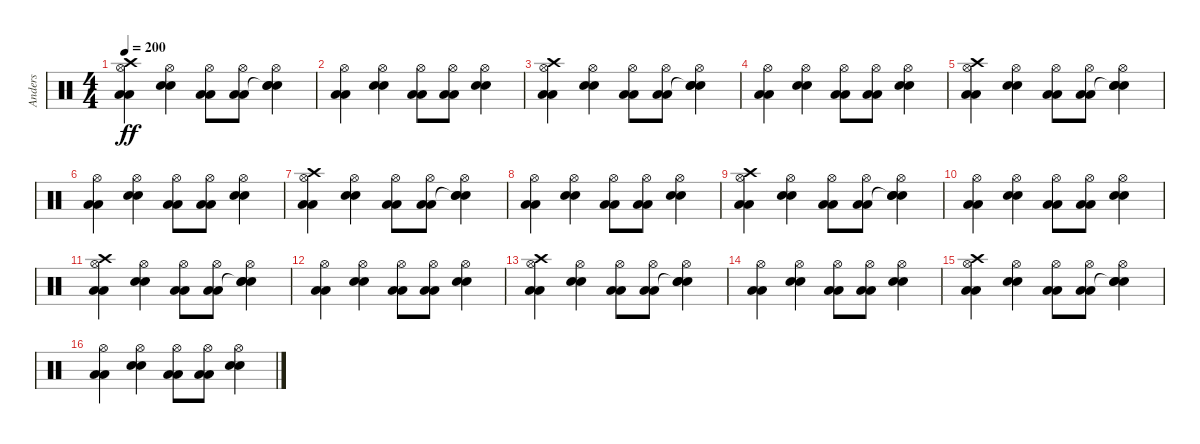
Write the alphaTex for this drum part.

\track ("Anders" "Anders") {instrument percussion}
\staff {score}
\articulation defaults
\ts (4 4)
\tempo 200
\clef neutral
\ks c
("Hi-Hat (open)" "Crash high (hit)" "Low Floor Tom (hit)" "Low Floor Tom (hit)").4{dy ff} ("Hi-Hat (open)" "Electric Snare (hit)" "Electric Snare (hit)").4 ("Hi-Hat (open)" "Low Floor Tom (hit)" "Low Floor Tom (hit)").8 ("Hi-Hat (open)" "Low Floor Tom (hit)" "Low Floor Tom (hit)").8 ("Hi-Hat (open)" "Snare (hit)"{t} "Electric Snare (hit)" "Electric Snare (hit)").4 |
("Hi-Hat (open)" "Low Floor Tom (hit)" "Low Floor Tom (hit)").4 ("Hi-Hat (open)" "Electric Snare (hit)" "Electric Snare (hit)").4 ("Hi-Hat (open)" "Low Floor Tom (hit)" "Low Floor Tom (hit)").8 ("Hi-Hat (open)" "Low Floor Tom (hit)" "Low Floor Tom (hit)").8 ("Hi-Hat (open)" "Electric Snare (hit)" "Electric Snare (hit)").4 |
("Hi-Hat (open)" "Crash high (hit)" "Low Floor Tom (hit)" "Low Floor Tom (hit)").4 ("Hi-Hat (open)" "Electric Snare (hit)" "Electric Snare (hit)").4 ("Hi-Hat (open)" "Low Floor Tom (hit)" "Low Floor Tom (hit)").8 ("Hi-Hat (open)" "Low Floor Tom (hit)" "Low Floor Tom (hit)").8 ("Hi-Hat (open)" "Snare (hit)"{t} "Electric Snare (hit)" "Electric Snare (hit)").4 |
("Hi-Hat (open)" "Low Floor Tom (hit)" "Low Floor Tom (hit)").4 ("Hi-Hat (open)" "Electric Snare (hit)" "Electric Snare (hit)").4 ("Hi-Hat (open)" "Low Floor Tom (hit)" "Low Floor Tom (hit)").8 ("Hi-Hat (open)" "Low Floor Tom (hit)" "Low Floor Tom (hit)").8 ("Hi-Hat (open)" "Electric Snare (hit)" "Electric Snare (hit)").4 |
("Hi-Hat (open)" "Crash high (hit)" "Low Floor Tom (hit)" "Low Floor Tom (hit)").4 ("Hi-Hat (open)" "Electric Snare (hit)" "Electric Snare (hit)").4 ("Hi-Hat (open)" "Low Floor Tom (hit)" "Low Floor Tom (hit)").8 ("Hi-Hat (open)" "Low Floor Tom (hit)" "Low Floor Tom (hit)").8 ("Hi-Hat (open)" "Snare (hit)"{t} "Electric Snare (hit)" "Electric Snare (hit)").4 |
("Hi-Hat (open)" "Low Floor Tom (hit)" "Low Floor Tom (hit)").4 ("Hi-Hat (open)" "Electric Snare (hit)" "Electric Snare (hit)").4 ("Hi-Hat (open)" "Low Floor Tom (hit)" "Low Floor Tom (hit)").8 ("Hi-Hat (open)" "Low Floor Tom (hit)" "Low Floor Tom (hit)").8 ("Hi-Hat (open)" "Electric Snare (hit)" "Electric Snare (hit)").4 |
("Hi-Hat (open)" "Crash high (hit)" "Low Floor Tom (hit)" "Low Floor Tom (hit)").4 ("Hi-Hat (open)" "Electric Snare (hit)" "Electric Snare (hit)").4 ("Hi-Hat (open)" "Low Floor Tom (hit)" "Low Floor Tom (hit)").8 ("Hi-Hat (open)" "Low Floor Tom (hit)" "Low Floor Tom (hit)").8 ("Hi-Hat (open)" "Snare (hit)"{t} "Electric Snare (hit)" "Electric Snare (hit)").4 |
("Hi-Hat (open)" "Low Floor Tom (hit)" "Low Floor Tom (hit)").4 ("Hi-Hat (open)" "Electric Snare (hit)" "Electric Snare (hit)").4 ("Hi-Hat (open)" "Low Floor Tom (hit)" "Low Floor Tom (hit)").8 ("Hi-Hat (open)" "Low Floor Tom (hit)" "Low Floor Tom (hit)").8 ("Hi-Hat (open)" "Electric Snare (hit)" "Electric Snare (hit)").4 |
("Hi-Hat (open)" "Crash high (hit)" "Low Floor Tom (hit)" "Low Floor Tom (hit)").4 ("Hi-Hat (open)" "Electric Snare (hit)" "Electric Snare (hit)").4 ("Hi-Hat (open)" "Low Floor Tom (hit)" "Low Floor Tom (hit)").8 ("Hi-Hat (open)" "Low Floor Tom (hit)" "Low Floor Tom (hit)").8 ("Hi-Hat (open)" "Snare (hit)"{t} "Electric Snare (hit)" "Electric Snare (hit)").4 |
("Hi-Hat (open)" "Low Floor Tom (hit)" "Low Floor Tom (hit)").4 ("Hi-Hat (open)" "Electric Snare (hit)" "Electric Snare (hit)").4 ("Hi-Hat (open)" "Low Floor Tom (hit)" "Low Floor Tom (hit)").8 ("Hi-Hat (open)" "Low Floor Tom (hit)" "Low Floor Tom (hit)").8 ("Hi-Hat (open)" "Electric Snare (hit)" "Electric Snare (hit)").4 |
("Hi-Hat (open)" "Crash high (hit)" "Low Floor Tom (hit)" "Low Floor Tom (hit)").4 ("Hi-Hat (open)" "Electric Snare (hit)" "Electric Snare (hit)").4 ("Hi-Hat (open)" "Low Floor Tom (hit)" "Low Floor Tom (hit)").8 ("Hi-Hat (open)" "Low Floor Tom (hit)" "Low Floor Tom (hit)").8 ("Hi-Hat (open)" "Snare (hit)"{t} "Electric Snare (hit)" "Electric Snare (hit)").4 |
("Hi-Hat (open)" "Low Floor Tom (hit)" "Low Floor Tom (hit)").4 ("Hi-Hat (open)" "Electric Snare (hit)" "Electric Snare (hit)").4 ("Hi-Hat (open)" "Low Floor Tom (hit)" "Low Floor Tom (hit)").8 ("Hi-Hat (open)" "Low Floor Tom (hit)" "Low Floor Tom (hit)").8 ("Hi-Hat (open)" "Electric Snare (hit)" "Electric Snare (hit)").4 |
("Hi-Hat (open)" "Crash high (hit)" "Low Floor Tom (hit)" "Low Floor Tom (hit)").4 ("Hi-Hat (open)" "Electric Snare (hit)" "Electric Snare (hit)").4 ("Hi-Hat (open)" "Low Floor Tom (hit)" "Low Floor Tom (hit)").8 ("Hi-Hat (open)" "Low Floor Tom (hit)" "Low Floor Tom (hit)").8 ("Hi-Hat (open)" "Snare (hit)"{t} "Electric Snare (hit)" "Electric Snare (hit)").4 |
("Hi-Hat (open)" "Low Floor Tom (hit)" "Low Floor Tom (hit)").4 ("Hi-Hat (open)" "Electric Snare (hit)" "Electric Snare (hit)").4 ("Hi-Hat (open)" "Low Floor Tom (hit)" "Low Floor Tom (hit)").8 ("Hi-Hat (open)" "Low Floor Tom (hit)" "Low Floor Tom (hit)").8 ("Hi-Hat (open)" "Electric Snare (hit)" "Electric Snare (hit)").4 |
("Hi-Hat (open)" "Crash high (hit)" "Low Floor Tom (hit)" "Low Floor Tom (hit)").4 ("Hi-Hat (open)" "Electric Snare (hit)" "Electric Snare (hit)").4 ("Hi-Hat (open)" "Low Floor Tom (hit)" "Low Floor Tom (hit)").8 ("Hi-Hat (open)" "Low Floor Tom (hit)" "Low Floor Tom (hit)").8 ("Hi-Hat (open)" "Snare (hit)"{t} "Electric Snare (hit)" "Electric Snare (hit)").4 |
("Hi-Hat (open)" "Low Floor Tom (hit)" "Low Floor Tom (hit)").4 ("Hi-Hat (open)" "Electric Snare (hit)" "Electric Snare (hit)").4 ("Hi-Hat (open)" "Low Floor Tom (hit)" "Low Floor Tom (hit)").8 ("Hi-Hat (open)" "Low Floor Tom (hit)" "Low Floor Tom (hit)").8 ("Hi-Hat (open)" "Electric Snare (hit)" "Electric Snare (hit)").4
